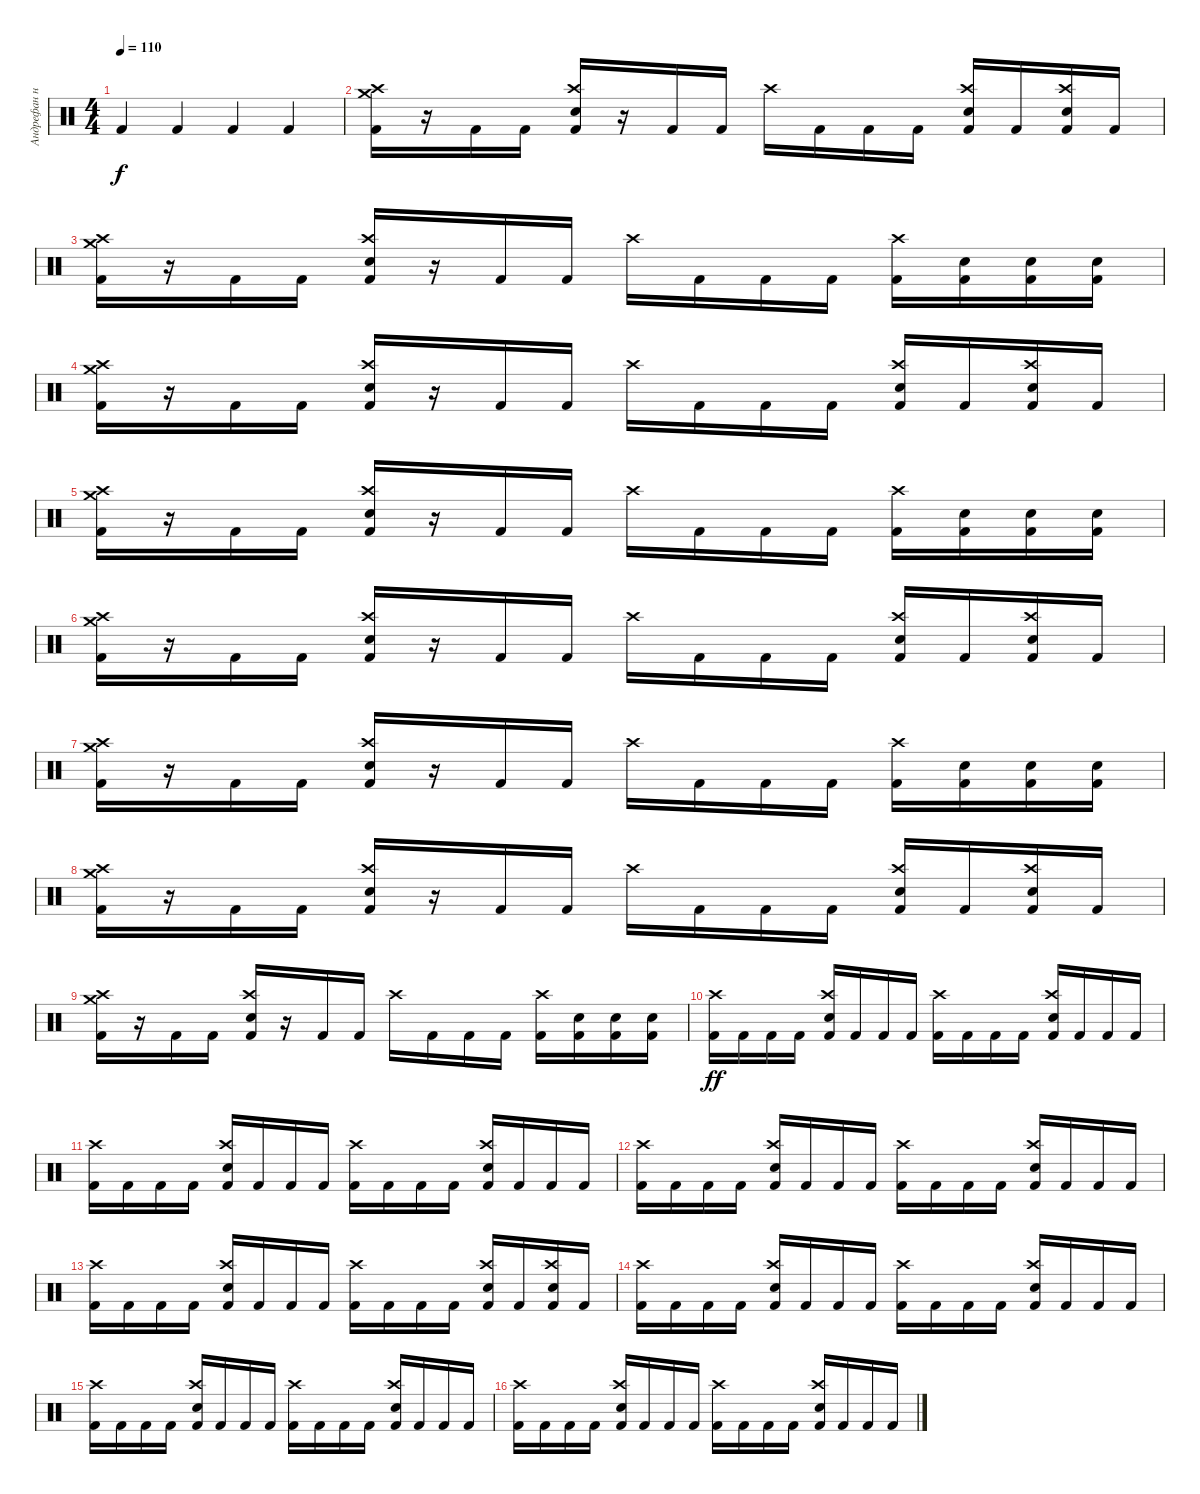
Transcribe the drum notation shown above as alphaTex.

\track ("Андрефан на драмах" "Андрефан н") {instrument percussion}
\staff {score}
\articulation defaults
\ts (4 4)
\tempo 110
\clef neutral
\ks c "Kick (hit) 2".4{dy f} "Kick (hit) 2".4 "Kick (hit) 2".4 "Kick (hit) 2".4
|
("Kick (hit) 2" "Crash high (hit)" "Crash medium (hit)").16 r.16 "Kick (hit) 2".16 "Kick (hit) 2".16 ("Kick (hit) 2" "Crash high (hit)" "Electric Snare (hit)").16 r.16 "Kick (hit) 2".16 "Kick (hit) 2".16 "Crash high (hit)".16 "Kick (hit) 2".16 "Kick (hit) 2".16 "Kick (hit) 2".16 ("Kick (hit) 2" "Crash high (hit)" "Electric Snare (hit)").16 "Kick (hit) 2".16 ("Kick (hit) 2" "Crash high (hit)" "Electric Snare (hit)").16 "Kick (hit) 2".16 |
("Kick (hit) 2" "Crash high (hit)" "Crash medium (hit)").16 r.16 "Kick (hit) 2".16 "Kick (hit) 2".16 ("Kick (hit) 2" "Crash high (hit)" "Electric Snare (hit)").16 r.16 "Kick (hit) 2".16 "Kick (hit) 2".16 "Crash high (hit)".16 "Kick (hit) 2".16 "Kick (hit) 2".16 "Kick (hit) 2".16 ("Kick (hit) 2" "Crash high (hit)").16 ("Kick (hit) 2" "Electric Snare (hit)").16 ("Kick (hit) 2" "Electric Snare (hit)").16 ("Kick (hit) 2" "Electric Snare (hit)").16 |
("Kick (hit) 2" "Crash high (hit)" "Crash medium (hit)").16 r.16 "Kick (hit) 2".16 "Kick (hit) 2".16 ("Kick (hit) 2" "Crash high (hit)" "Electric Snare (hit)").16 r.16 "Kick (hit) 2".16 "Kick (hit) 2".16 "Crash high (hit)".16 "Kick (hit) 2".16 "Kick (hit) 2".16 "Kick (hit) 2".16 ("Kick (hit) 2" "Crash high (hit)" "Electric Snare (hit)").16 "Kick (hit) 2".16 ("Kick (hit) 2" "Crash high (hit)" "Electric Snare (hit)").16 "Kick (hit) 2".16 |
("Kick (hit) 2" "Crash high (hit)" "Crash medium (hit)").16 r.16 "Kick (hit) 2".16 "Kick (hit) 2".16 ("Kick (hit) 2" "Crash high (hit)" "Electric Snare (hit)").16 r.16 "Kick (hit) 2".16 "Kick (hit) 2".16 "Crash high (hit)".16 "Kick (hit) 2".16 "Kick (hit) 2".16 "Kick (hit) 2".16 ("Kick (hit) 2" "Crash high (hit)").16 ("Kick (hit) 2" "Electric Snare (hit)").16 ("Kick (hit) 2" "Electric Snare (hit)").16 ("Kick (hit) 2" "Electric Snare (hit)").16 |
("Kick (hit) 2" "Crash high (hit)" "Crash medium (hit)").16 r.16 "Kick (hit) 2".16 "Kick (hit) 2".16 ("Kick (hit) 2" "Crash high (hit)" "Electric Snare (hit)").16 r.16 "Kick (hit) 2".16 "Kick (hit) 2".16 "Crash high (hit)".16 "Kick (hit) 2".16 "Kick (hit) 2".16 "Kick (hit) 2".16 ("Kick (hit) 2" "Crash high (hit)" "Electric Snare (hit)").16 "Kick (hit) 2".16 ("Kick (hit) 2" "Crash high (hit)" "Electric Snare (hit)").16 "Kick (hit) 2".16 |
("Kick (hit) 2" "Crash high (hit)" "Crash medium (hit)").16 r.16 "Kick (hit) 2".16 "Kick (hit) 2".16 ("Kick (hit) 2" "Crash high (hit)" "Electric Snare (hit)").16 r.16 "Kick (hit) 2".16 "Kick (hit) 2".16 "Crash high (hit)".16 "Kick (hit) 2".16 "Kick (hit) 2".16 "Kick (hit) 2".16 ("Kick (hit) 2" "Crash high (hit)").16 ("Kick (hit) 2" "Electric Snare (hit)").16 ("Kick (hit) 2" "Electric Snare (hit)").16 ("Kick (hit) 2" "Electric Snare (hit)").16 |
("Kick (hit) 2" "Crash high (hit)" "Crash medium (hit)").16 r.16 "Kick (hit) 2".16 "Kick (hit) 2".16 ("Kick (hit) 2" "Crash high (hit)" "Electric Snare (hit)").16 r.16 "Kick (hit) 2".16 "Kick (hit) 2".16 "Crash high (hit)".16 "Kick (hit) 2".16 "Kick (hit) 2".16 "Kick (hit) 2".16 ("Kick (hit) 2" "Crash high (hit)" "Electric Snare (hit)").16 "Kick (hit) 2".16 ("Kick (hit) 2" "Crash high (hit)" "Electric Snare (hit)").16 "Kick (hit) 2".16 |
("Kick (hit) 2" "Crash high (hit)" "Crash medium (hit)").16 r.16 "Kick (hit) 2".16 "Kick (hit) 2".16 ("Kick (hit) 2" "Crash high (hit)" "Electric Snare (hit)").16 r.16 "Kick (hit) 2".16 "Kick (hit) 2".16 "Crash high (hit)".16 "Kick (hit) 2".16 "Kick (hit) 2".16 "Kick (hit) 2".16 ("Kick (hit) 2" "Crash high (hit)").16 ("Kick (hit) 2" "Electric Snare (hit)").16 ("Kick (hit) 2" "Electric Snare (hit)").16 ("Kick (hit) 2" "Electric Snare (hit)").16 |
("Kick (hit) 2" "Crash high (hit)").16{dy ff} "Kick (hit) 2".16 "Kick (hit) 2".16 "Kick (hit) 2".16 ("Kick (hit) 2" "Crash high (hit)" "Electric Snare (hit)").16 "Kick (hit) 2".16 "Kick (hit) 2".16 "Kick (hit) 2".16 ("Kick (hit) 2" "Crash high (hit)").16 "Kick (hit) 2".16 "Kick (hit) 2".16 "Kick (hit) 2".16 ("Kick (hit) 2" "Crash high (hit)" "Electric Snare (hit)").16 "Kick (hit) 2".16 "Kick (hit) 2".16 "Kick (hit) 2".16 |
("Kick (hit) 2" "Crash high (hit)").16 "Kick (hit) 2".16 "Kick (hit) 2".16 "Kick (hit) 2".16 ("Kick (hit) 2" "Crash high (hit)" "Electric Snare (hit)").16 "Kick (hit) 2".16 "Kick (hit) 2".16 "Kick (hit) 2".16 ("Kick (hit) 2" "Crash high (hit)").16 "Kick (hit) 2".16 "Kick (hit) 2".16 "Kick (hit) 2".16 ("Kick (hit) 2" "Crash high (hit)" "Electric Snare (hit)").16 "Kick (hit) 2".16 "Kick (hit) 2".16 "Kick (hit) 2".16 |
("Kick (hit) 2" "Crash high (hit)").16 "Kick (hit) 2".16 "Kick (hit) 2".16 "Kick (hit) 2".16 ("Kick (hit) 2" "Crash high (hit)" "Electric Snare (hit)").16 "Kick (hit) 2".16 "Kick (hit) 2".16 "Kick (hit) 2".16 ("Kick (hit) 2" "Crash high (hit)").16 "Kick (hit) 2".16 "Kick (hit) 2".16 "Kick (hit) 2".16 ("Kick (hit) 2" "Crash high (hit)" "Electric Snare (hit)").16 "Kick (hit) 2".16 "Kick (hit) 2".16 "Kick (hit) 2".16 |
("Kick (hit) 2" "Crash high (hit)").16 "Kick (hit) 2".16 "Kick (hit) 2".16 "Kick (hit) 2".16 ("Kick (hit) 2" "Crash high (hit)" "Electric Snare (hit)").16 "Kick (hit) 2".16 "Kick (hit) 2".16 "Kick (hit) 2".16 ("Kick (hit) 2" "Crash high (hit)").16 "Kick (hit) 2".16 "Kick (hit) 2".16 "Kick (hit) 2".16 ("Kick (hit) 2" "Crash high (hit)" "Electric Snare (hit)").16 "Kick (hit) 2".16 ("Kick (hit) 2" "Crash high (hit)" "Electric Snare (hit)").16 "Kick (hit) 2".16 |
("Kick (hit) 2" "Crash high (hit)").16 "Kick (hit) 2".16 "Kick (hit) 2".16 "Kick (hit) 2".16 ("Kick (hit) 2" "Crash high (hit)" "Electric Snare (hit)").16 "Kick (hit) 2".16 "Kick (hit) 2".16 "Kick (hit) 2".16 ("Kick (hit) 2" "Crash high (hit)").16 "Kick (hit) 2".16 "Kick (hit) 2".16 "Kick (hit) 2".16 ("Kick (hit) 2" "Crash high (hit)" "Electric Snare (hit)").16 "Kick (hit) 2".16 "Kick (hit) 2".16 "Kick (hit) 2".16 |
("Kick (hit) 2" "Crash high (hit)").16 "Kick (hit) 2".16 "Kick (hit) 2".16 "Kick (hit) 2".16 ("Kick (hit) 2" "Crash high (hit)" "Electric Snare (hit)").16 "Kick (hit) 2".16 "Kick (hit) 2".16 "Kick (hit) 2".16 ("Kick (hit) 2" "Crash high (hit)").16 "Kick (hit) 2".16 "Kick (hit) 2".16 "Kick (hit) 2".16 ("Kick (hit) 2" "Crash high (hit)" "Electric Snare (hit)").16 "Kick (hit) 2".16 "Kick (hit) 2".16 "Kick (hit) 2".16 |
("Kick (hit) 2" "Crash high (hit)").16 "Kick (hit) 2".16 "Kick (hit) 2".16 "Kick (hit) 2".16 ("Kick (hit) 2" "Crash high (hit)" "Electric Snare (hit)").16 "Kick (hit) 2".16 "Kick (hit) 2".16 "Kick (hit) 2".16 ("Kick (hit) 2" "Crash high (hit)").16 "Kick (hit) 2".16 "Kick (hit) 2".16 "Kick (hit) 2".16 ("Kick (hit) 2" "Crash high (hit)" "Electric Snare (hit)").16 "Kick (hit) 2".16 "Kick (hit) 2".16 "Kick (hit) 2".16
